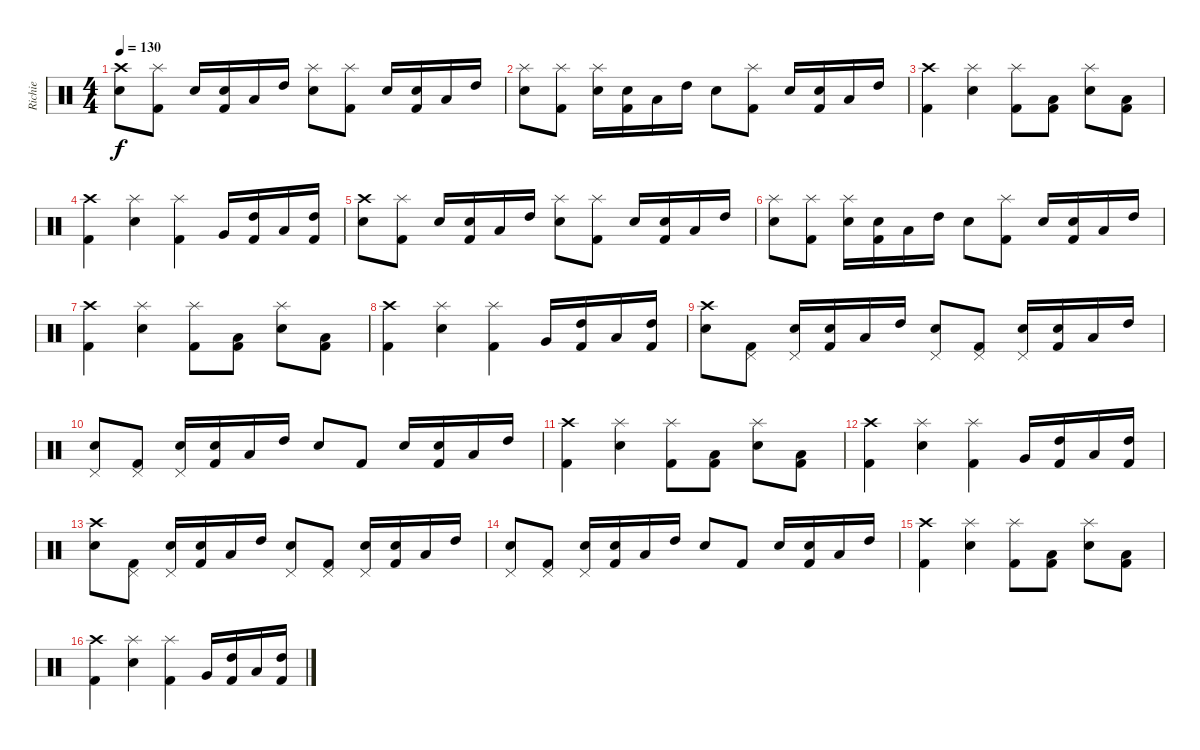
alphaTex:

\track ("Richie" "Richie") {instrument percussion}
\staff {score}
\articulation defaults
\ts (4 4)
\tempo 130
\clef neutral
\ks c
("Crash high (hit)" "Snare (hit) 2").8{dy f} ("Splash (hit)" "Kick (hit) 2").8 "Electric Snare (hit)".16 ("Electric Snare (hit)" "Kick (hit) 2").16 "Low Tom (hit)".16 "High Tom (hit)".16 ("Splash (hit)" "Snare (hit) 2").8 ("Splash (hit)" "Kick (hit) 2").8 "Electric Snare (hit)".16 ("Electric Snare (hit)" "Kick (hit) 2").16 "Low Tom (hit)".16 "High Tom (hit)".16 |
("Splash (hit)" "Snare (hit) 2").8 ("Splash (hit)" "Kick (hit) 2").8 ("Splash (hit)" "Electric Snare (hit)").16 ("Electric Snare (hit)" "Kick (hit) 2").16 "Low Tom (hit)".16 "High Tom (hit)".16 "Snare (hit) 2".8 ("Splash (hit)" "Kick (hit) 2").8 "Electric Snare (hit)".16 ("Electric Snare (hit)" "Kick (hit) 2").16 "Low Tom (hit)".16 "High Tom (hit)".16 |
("Crash high (hit)" "Kick (hit) 2").4 ("Splash (hit)" "Electric Snare (hit)").4 ("Splash (hit)" "Kick (hit) 2").8 ("Low Tom (hit)" "Kick (hit) 2").8 ("Splash (hit)" "Electric Snare (hit)").8 ("Low Tom (hit)" "Kick (hit) 2").8 |
("Crash high (hit)" "Kick (hit) 2").4 ("Splash (hit)" "Electric Snare (hit)").4 ("Splash (hit)" "Kick (hit) 2").4 "Very Low Tom (hit)".16 ("High Tom (hit)" "Kick (hit) 2").16 "Low Tom (hit)".16 ("High Tom (hit)" "Kick (hit) 2").16 |
("Crash high (hit)" "Snare (hit) 2").8 ("Splash (hit)" "Kick (hit) 2").8 "Electric Snare (hit)".16 ("Electric Snare (hit)" "Kick (hit) 2").16 "Low Tom (hit)".16 "High Tom (hit)".16 ("Splash (hit)" "Snare (hit) 2").8 ("Splash (hit)" "Kick (hit) 2").8 "Electric Snare (hit)".16 ("Electric Snare (hit)" "Kick (hit) 2").16 "Low Tom (hit)".16 "High Tom (hit)".16 |
("Splash (hit)" "Snare (hit) 2").8 ("Splash (hit)" "Kick (hit) 2").8 ("Splash (hit)" "Electric Snare (hit)").16 ("Electric Snare (hit)" "Kick (hit) 2").16 "Low Tom (hit)".16 "High Tom (hit)".16 "Snare (hit) 2".8 ("Splash (hit)" "Kick (hit) 2").8 "Electric Snare (hit)".16 ("Electric Snare (hit)" "Kick (hit) 2").16 "Low Tom (hit)".16 "High Tom (hit)".16 |
("Crash high (hit)" "Kick (hit) 2").4 ("Splash (hit)" "Electric Snare (hit)").4 ("Splash (hit)" "Kick (hit) 2").8 ("Low Tom (hit)" "Kick (hit) 2").8 ("Splash (hit)" "Electric Snare (hit)").8 ("Low Tom (hit)" "Kick (hit) 2").8 |
("Crash high (hit)" "Kick (hit) 2").4 ("Splash (hit)" "Electric Snare (hit)").4 ("Splash (hit)" "Kick (hit) 2").4 "Very Low Tom (hit)".16 ("High Tom (hit)" "Kick (hit) 2").16 "Low Tom (hit)".16 ("High Tom (hit)" "Kick (hit) 2").16 |
("Crash high (hit)" "Snare (hit) 2").8 ("Pedal Hi-Hat (hit)" "Kick (hit) 2").8 ("Pedal Hi-Hat (hit)" "Electric Snare (hit)").16 ("Electric Snare (hit)" "Kick (hit) 2").16 "Low Tom (hit)".16 "High Tom (hit)".16 ("Pedal Hi-Hat (hit)" "Snare (hit) 2").8 ("Pedal Hi-Hat (hit)" "Kick (hit) 2").8 ("Pedal Hi-Hat (hit)" "Electric Snare (hit)").16 ("Electric Snare (hit)" "Kick (hit) 2").16 "Low Tom (hit)".16 "High Tom (hit)".16 |
("Pedal Hi-Hat (hit)" "Snare (hit) 2").8 ("Pedal Hi-Hat (hit)" "Kick (hit) 2").8 ("Pedal Hi-Hat (hit)" "Electric Snare (hit)").16 ("Electric Snare (hit)" "Kick (hit) 2").16 "Low Tom (hit)".16 "High Tom (hit)".16 "Snare (hit) 2".8 "Kick (hit) 2".8 "Electric Snare (hit)".16 ("Electric Snare (hit)" "Kick (hit) 2").16 "Low Tom (hit)".16 "High Tom (hit)".16 |
("Crash high (hit)" "Kick (hit) 2").4 ("Splash (hit)" "Electric Snare (hit)").4 ("Splash (hit)" "Kick (hit) 2").8 ("Low Tom (hit)" "Kick (hit) 2").8 ("Splash (hit)" "Electric Snare (hit)").8 ("Low Tom (hit)" "Kick (hit) 2").8 |
("Crash high (hit)" "Kick (hit) 2").4 ("Splash (hit)" "Electric Snare (hit)").4 ("Splash (hit)" "Kick (hit) 2").4 "Very Low Tom (hit)".16 ("High Tom (hit)" "Kick (hit) 2").16 "Low Tom (hit)".16 ("High Tom (hit)" "Kick (hit) 2").16 |
("Crash high (hit)" "Snare (hit) 2").8 ("Pedal Hi-Hat (hit)" "Kick (hit) 2").8 ("Pedal Hi-Hat (hit)" "Electric Snare (hit)").16 ("Electric Snare (hit)" "Kick (hit) 2").16 "Low Tom (hit)".16 "High Tom (hit)".16 ("Pedal Hi-Hat (hit)" "Snare (hit) 2").8 ("Pedal Hi-Hat (hit)" "Kick (hit) 2").8 ("Pedal Hi-Hat (hit)" "Electric Snare (hit)").16 ("Electric Snare (hit)" "Kick (hit) 2").16 "Low Tom (hit)".16 "High Tom (hit)".16 |
("Pedal Hi-Hat (hit)" "Snare (hit) 2").8 ("Pedal Hi-Hat (hit)" "Kick (hit) 2").8 ("Pedal Hi-Hat (hit)" "Electric Snare (hit)").16 ("Electric Snare (hit)" "Kick (hit) 2").16 "Low Tom (hit)".16 "High Tom (hit)".16 "Snare (hit) 2".8 "Kick (hit) 2".8 "Electric Snare (hit)".16 ("Electric Snare (hit)" "Kick (hit) 2").16 "Low Tom (hit)".16 "High Tom (hit)".16 |
("Crash high (hit)" "Kick (hit) 2").4 ("Splash (hit)" "Electric Snare (hit)").4 ("Splash (hit)" "Kick (hit) 2").8 ("Low Tom (hit)" "Kick (hit) 2").8 ("Splash (hit)" "Electric Snare (hit)").8 ("Low Tom (hit)" "Kick (hit) 2").8 |
("Crash high (hit)" "Kick (hit) 2").4 ("Splash (hit)" "Electric Snare (hit)").4 ("Splash (hit)" "Kick (hit) 2").4 "Very Low Tom (hit)".16 ("High Tom (hit)" "Kick (hit) 2").16 "Low Tom (hit)".16 ("High Tom (hit)" "Kick (hit) 2").16
